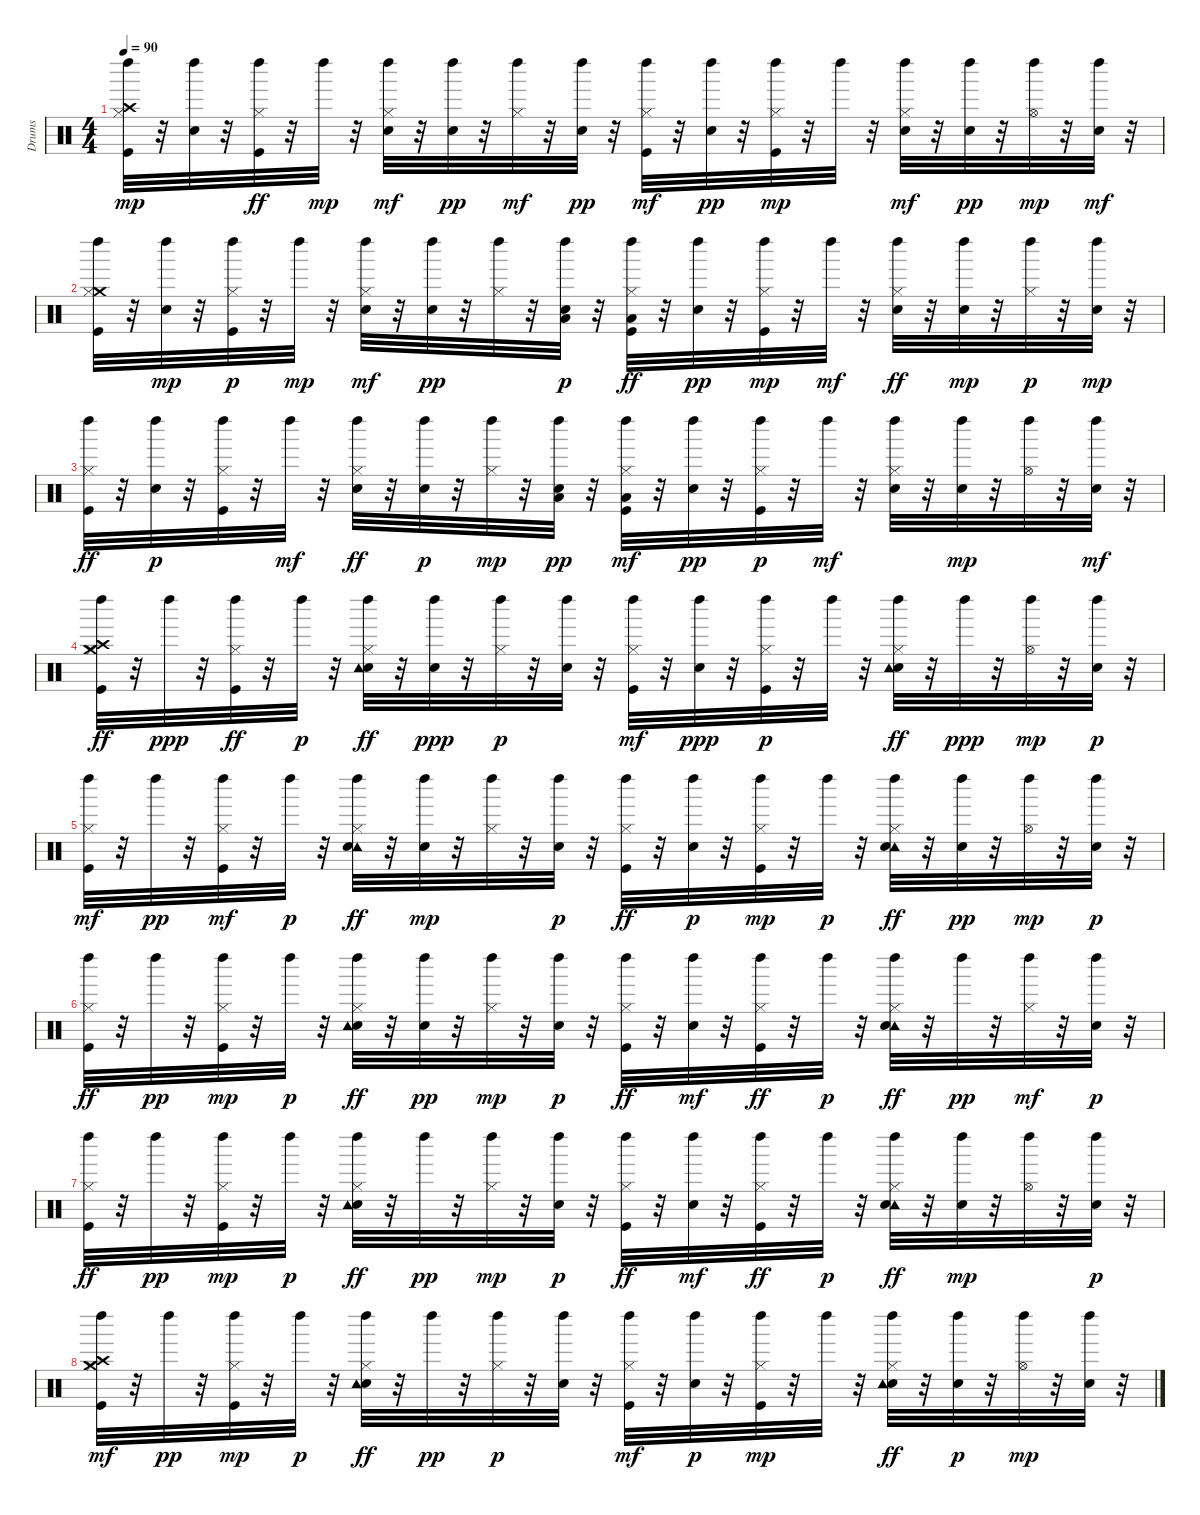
\track ("Drums" "Drums") {instrument percussion}
\staff {score}
\articulation defaults
\ts (4 4)
\tempo 90
\clef neutral
\ks c
("Kick (hit)" "Left Maraca (hit)" "Crash high (hit)" "Hi-Hat (closed)").32{dy mp} r.32 ("Electric Snare (hit)" "Left Maraca (hit)").32 r.32 ("Hi-Hat (closed)" "Left Maraca (hit)" "Kick (hit)").32{dy ff} r.32 "Left Maraca (hit)".32{dy mp} r.32 ("Hi-Hat (closed)" "Electric Snare (hit)" "Left Maraca (hit)").32{dy mf} r.32 ("Left Maraca (hit)" "Electric Snare (hit)").32{dy pp} r.32 ("Left Maraca (hit)" "Hi-Hat (closed)").32{dy mf} r.32 ("Left Maraca (hit)" "Electric Snare (hit)").32{dy pp} r.32 ("Kick (hit)" "Left Maraca (hit)" "Hi-Hat (closed)").32{dy mf} r.32 ("Left Maraca (hit)" "Electric Snare (hit)").32{dy pp} r.32 ("Hi-Hat (closed)" "Kick (hit)" "Left Maraca (hit)").32{dy mp} r.32 "Left Maraca (hit)".32 r.32 ("Hi-Hat (closed)" "Electric Snare (hit)" "Left Maraca (hit)").32{dy mf} r.32 ("Electric Snare (hit)" "Left Maraca (hit)").32{dy pp} r.32 ("Hi-Hat (open)" "Left Maraca (hit)").32{dy mp} r.32 ("Electric Snare (hit)" "Left Maraca (hit)").32{dy mf} r.32 |
("Kick (hit)" "Crash medium (hit)" "Hi-Hat (closed)" "Left Maraca (hit)").32 r.32 ("Electric Snare (hit)" "Left Maraca (hit)").32{dy mp} r.32 ("Kick (hit)" "Hi-Hat (closed)" "Left Maraca (hit)").32{dy p} r.32 "Left Maraca (hit)".32{dy mp} r.32 ("Hi-Hat (closed)" "Electric Snare (hit)" "Left Maraca (hit)").32{dy mf} r.32 ("Left Maraca (hit)" "Electric Snare (hit)").32{dy pp} r.32 ("Hi-Hat (closed)" "Left Maraca (hit)").32 r.32 ("Electric Snare (hit)" "Low Tom (hit)" "Left Maraca (hit)").32{dy p} r.32 ("Kick (hit)" "Low Floor Tom (hit)" "Left Maraca (hit)" "Hi-Hat (closed)").32{dy ff} r.32 ("Left Maraca (hit)" "Electric Snare (hit)").32{dy pp} r.32 ("Kick (hit)" "Hi-Hat (closed)" "Left Maraca (hit)").32{dy mp} r.32 "Left Maraca (hit)".32{dy mf} r.32 ("Electric Snare (hit)" "Left Maraca (hit)" "Hi-Hat (closed)").32{dy ff} r.32 ("Electric Snare (hit)" "Left Maraca (hit)").32{dy mp} r.32 ("Hi-Hat (closed)" "Left Maraca (hit)").32{dy p} r.32 ("Electric Snare (hit)" "Left Maraca (hit)").32{dy mp} r.32 |
("Kick (hit)" "Left Maraca (hit)" "Hi-Hat (closed)").32{dy ff} r.32 ("Electric Snare (hit)" "Left Maraca (hit)").32{dy p} r.32 ("Kick (hit)" "Hi-Hat (closed)" "Left Maraca (hit)").32 r.32 "Left Maraca (hit)".32{dy mf} r.32 ("Electric Snare (hit)" "Left Maraca (hit)" "Hi-Hat (closed)").32{dy ff} r.32 ("Electric Snare (hit)" "Left Maraca (hit)").32{dy p} r.32 ("Hi-Hat (closed)" "Left Maraca (hit)").32{dy mp} r.32 ("Low Tom (hit)" "Left Maraca (hit)" "Electric Snare (hit)").32{dy pp} r.32 ("Left Maraca (hit)" "Hi-Hat (closed)" "Kick (hit)" "Low Floor Tom (hit)").32{dy mf} r.32 ("Electric Snare (hit)" "Left Maraca (hit)").32{dy pp} r.32 ("Hi-Hat (closed)" "Kick (hit)" "Left Maraca (hit)").32{dy p} r.32 "Left Maraca (hit)".32{dy mf} r.32 ("Hi-Hat (closed)" "Electric Snare (hit)" "Left Maraca (hit)").32 r.32 ("Electric Snare (hit)" "Left Maraca (hit)").32{dy mp} r.32 ("Hi-Hat (open)" "Left Maraca (hit)").32 r.32 ("Electric Snare (hit)" "Left Maraca (hit)").32{dy mf} r.32 |
("Kick (hit)" "Crash high (hit)" "Crash medium (hit)" "Left Maraca (hit)" "Hi-Hat (closed)").32{dy ff} r.32 "Left Maraca (hit)".32{dy ppp} r.32 ("Left Maraca (hit)" "Hi-Hat (closed)" "Kick (hit)").32{dy ff} r.32 "Left Maraca (hit)".32{dy p} r.32 ("Hi-Hat (closed)" "Electric Snare (hit)" "Tambourine (hit)" "Left Maraca (hit)").32{dy ff} r.32 ("Electric Snare (hit)" "Left Maraca (hit)").32{dy ppp} r.32 ("Hi-Hat (closed)" "Left Maraca (hit)").32{dy p} r.32 ("Electric Snare (hit)" "Left Maraca (hit)").32 r.32 ("Hi-Hat (closed)" "Kick (hit)" "Left Maraca (hit)").32{dy mf} r.32 ("Electric Snare (hit)" "Left Maraca (hit)").32{dy ppp} r.32 ("Hi-Hat (closed)" "Kick (hit)" "Left Maraca (hit)").32{dy p} r.32 "Left Maraca (hit)".32 r.32 ("Electric Snare (hit)" "Hi-Hat (closed)" "Tambourine (hit)" "Left Maraca (hit)").32{dy ff} r.32 "Left Maraca (hit)".32{dy ppp} r.32 ("Hi-Hat (open)" "Left Maraca (hit)").32{dy mp} r.32 ("Electric Snare (hit)" "Left Maraca (hit)").32{dy p} r.32 |
("Kick (hit)" "Left Maraca (hit)" "Hi-Hat (closed)").32{dy mf} r.32 "Left Maraca (hit)".32{dy pp} r.32 ("Kick (hit)" "Left Maraca (hit)" "Hi-Hat (closed)").32{dy mf} r.32 "Left Maraca (hit)".32{dy p} r.32 ("Tambourine (hit)" "Electric Snare (hit)" "Hi-Hat (closed)" "Left Maraca (hit)").32{dy ff} r.32 ("Left Maraca (hit)" "Electric Snare (hit)").32{dy mp} r.32 ("Hi-Hat (closed)" "Left Maraca (hit)").32 r.32 ("Electric Snare (hit)" "Left Maraca (hit)").32{dy p} r.32 ("Hi-Hat (closed)" "Kick (hit)" "Left Maraca (hit)").32{dy ff} r.32 ("Electric Snare (hit)" "Left Maraca (hit)").32{dy p} r.32 ("Hi-Hat (closed)" "Kick (hit)" "Left Maraca (hit)").32{dy mp} r.32 "Left Maraca (hit)".32{dy p} r.32 ("Tambourine (hit)" "Electric Snare (hit)" "Hi-Hat (closed)" "Left Maraca (hit)").32{dy ff} r.32 ("Electric Snare (hit)" "Left Maraca (hit)").32{dy pp} r.32 ("Hi-Hat (open)" "Left Maraca (hit)").32{dy mp} r.32 ("Electric Snare (hit)" "Left Maraca (hit)").32{dy p} r.32 |
("Hi-Hat (closed)" "Kick (hit)" "Left Maraca (hit)").32{dy ff} r.32 "Left Maraca (hit)".32{dy pp} r.32 ("Hi-Hat (closed)" "Kick (hit)" "Left Maraca (hit)").32{dy mp} r.32 "Left Maraca (hit)".32{dy p} r.32 ("Hi-Hat (closed)" "Electric Snare (hit)" "Tambourine (hit)" "Left Maraca (hit)").32{dy ff} r.32 ("Electric Snare (hit)" "Left Maraca (hit)").32{dy pp} r.32 ("Hi-Hat (closed)" "Left Maraca (hit)").32{dy mp} r.32 ("Electric Snare (hit)" "Left Maraca (hit)").32{dy p} r.32 ("Left Maraca (hit)" "Hi-Hat (closed)" "Kick (hit)").32{dy ff} r.32 ("Left Maraca (hit)" "Electric Snare (hit)").32{dy mf} r.32 ("Left Maraca (hit)" "Hi-Hat (closed)" "Kick (hit)").32{dy ff} r.32 "Left Maraca (hit)".32{dy p} r.32 ("Tambourine (hit)" "Hi-Hat (closed)" "Electric Snare (hit)" "Left Maraca (hit)").32{dy ff} r.32 "Left Maraca (hit)".32{dy pp} r.32 ("Left Maraca (hit)" "Hi-Hat (closed)").32{dy mf} r.32 ("Electric Snare (hit)" "Left Maraca (hit)").32{dy p} r.32 |
("Kick (hit)" "Left Maraca (hit)" "Hi-Hat (closed)").32{dy ff} r.32 "Left Maraca (hit)".32{dy pp} r.32 ("Hi-Hat (closed)" "Kick (hit)" "Left Maraca (hit)").32{dy mp} r.32 "Left Maraca (hit)".32{dy p} r.32 ("Electric Snare (hit)" "Tambourine (hit)" "Left Maraca (hit)" "Hi-Hat (closed)").32{dy ff} r.32 "Left Maraca (hit)".32{dy pp} r.32 ("Hi-Hat (closed)" "Left Maraca (hit)").32{dy mp} r.32 ("Electric Snare (hit)" "Left Maraca (hit)").32{dy p} r.32 ("Left Maraca (hit)" "Hi-Hat (closed)" "Kick (hit)").32{dy ff} r.32 ("Left Maraca (hit)" "Electric Snare (hit)").32{dy mf} r.32 ("Left Maraca (hit)" "Hi-Hat (closed)" "Kick (hit)").32{dy ff} r.32 "Left Maraca (hit)".32{dy p} r.32 ("Tambourine (hit)" "Left Maraca (hit)" "Hi-Hat (closed)" "Electric Snare (hit)").32{dy ff} r.32 ("Left Maraca (hit)" "Electric Snare (hit)").32{dy mp} r.32 ("Hi-Hat (open)" "Left Maraca (hit)").32 r.32 ("Electric Snare (hit)" "Left Maraca (hit)").32{dy p} r.32 |
("Crash medium (hit)" "Crash high (hit)" "Hi-Hat (closed)" "Kick (hit)" "Left Maraca (hit)").32{dy mf} r.32 "Left Maraca (hit)".32{dy pp} r.32 ("Hi-Hat (closed)" "Kick (hit)" "Left Maraca (hit)").32{dy mp} r.32 "Left Maraca (hit)".32{dy p} r.32 ("Hi-Hat (closed)" "Electric Snare (hit)" "Tambourine (hit)" "Left Maraca (hit)").32{dy ff} r.32 "Left Maraca (hit)".32{dy pp} r.32 ("Hi-Hat (closed)" "Left Maraca (hit)").32{dy p} r.32 ("Electric Snare (hit)" "Left Maraca (hit)").32 r.32 ("Kick (hit)" "Left Maraca (hit)" "Hi-Hat (closed)").32{dy mf} r.32 ("Electric Snare (hit)" "Left Maraca (hit)").32{dy p} r.32 ("Hi-Hat (closed)" "Kick (hit)" "Left Maraca (hit)").32{dy mp} r.32 "Left Maraca (hit)".32 r.32 ("Hi-Hat (closed)" "Electric Snare (hit)" "Left Maraca (hit)" "Tambourine (hit)").32{dy ff} r.32 ("Electric Snare (hit)" "Left Maraca (hit)").32{dy p} r.32 ("Hi-Hat (open)" "Left Maraca (hit)").32{dy mp} r.32 ("Electric Snare (hit)" "Left Maraca (hit)").32 r.32
